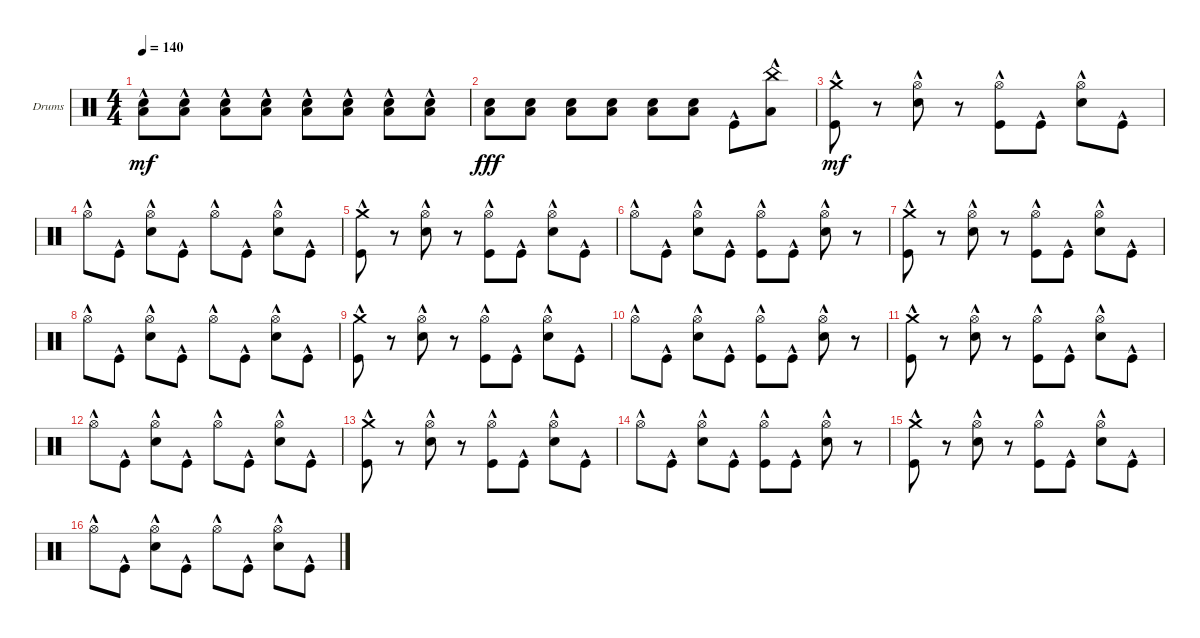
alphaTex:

\defaultSystemsLayout 4
\bracketExtendMode groupsimilarinstruments
\firstSystemTrackNameOrientation horizontal
\otherSystemsTrackNameOrientation horizontal
\track ("Drumkit" "Drums") {instrument percussion}
\staff {score}
\articulation defaults
\ts (4 4)
\tempo 140
\clef neutral
\ks c
("Snare (hit) 2"{hac} "Low Tom (hit)"{hac}).8{dy mf} ("Snare (hit) 2"{hac} "Low Tom (hit)"{hac}).8 ("Snare (hit) 2"{hac} "Low Tom (hit)"{hac}).8 ("Snare (hit) 2"{hac} "Low Tom (hit)"{hac}).8 ("Snare (hit) 2"{hac} "Low Tom (hit)"{hac}).8 ("Snare (hit) 2"{hac} "Low Tom (hit)"{hac}).8 ("Snare (hit) 2"{hac} "Low Tom (hit)"{hac}).8 ("Snare (hit) 2"{hac} "Low Tom (hit)"{hac}).8 |
("Snare (hit) 2" "Low Tom (hit)").8{dy fff} ("Snare (hit) 2" "Low Tom (hit)").8 ("Snare (hit) 2" "Low Tom (hit)").8 ("Snare (hit) 2" "Low Tom (hit)").8 ("Snare (hit) 2" "Low Tom (hit)").8 ("Snare (hit) 2" "Low Tom (hit)").8 "Kick (hit)"{hac}.8 ("Low Tom (hit)"{hac} "China (hit)"{hac}).8 |
("Kick (hit)"{hac} "Crash medium (hit)"{hac}).8{dy mf} r.8 ("Hi-Hat (open)"{hac} "Snare (hit) 2"{hac}).8 r.8 ("Hi-Hat (open)"{hac} "Kick (hit)"{hac}).8 "Kick (hit)"{hac}.8 ("Hi-Hat (open)"{hac} "Snare (hit) 2"{hac}).8 "Kick (hit)"{hac}.8 |
"Hi-Hat (open)"{hac}.8 "Kick (hit)"{hac}.8 ("Hi-Hat (open)"{hac} "Snare (hit) 2"{hac}).8 "Kick (hit)"{hac}.8 "Hi-Hat (open)"{hac}.8 "Kick (hit)"{hac}.8 ("Hi-Hat (open)"{hac} "Snare (hit) 2"{hac}).8 "Kick (hit)"{hac}.8 |
("Kick (hit)"{hac} "Crash medium (hit)"{hac}).8 r.8 ("Hi-Hat (open)"{hac} "Snare (hit) 2"{hac}).8 r.8 ("Hi-Hat (open)"{hac} "Kick (hit)"{hac}).8 "Kick (hit)"{hac}.8 ("Hi-Hat (open)"{hac} "Snare (hit) 2"{hac}).8 "Kick (hit)"{hac}.8 |
"Hi-Hat (open)"{hac}.8 "Kick (hit)"{hac}.8 ("Hi-Hat (open)"{hac} "Snare (hit) 2"{hac}).8 "Kick (hit)"{hac}.8 ("Hi-Hat (open)"{hac} "Kick (hit)"{hac}).8 "Kick (hit)"{hac}.8 ("Hi-Hat (open)"{hac} "Snare (hit) 2"{hac}).8 r.8 |
("Kick (hit)"{hac} "Crash medium (hit)"{hac}).8 r.8 ("Hi-Hat (open)"{hac} "Snare (hit) 2"{hac}).8 r.8 ("Hi-Hat (open)"{hac} "Kick (hit)"{hac}).8 "Kick (hit)"{hac}.8 ("Hi-Hat (open)"{hac} "Snare (hit) 2"{hac}).8 "Kick (hit)"{hac}.8 |
"Hi-Hat (open)"{hac}.8 "Kick (hit)"{hac}.8 ("Hi-Hat (open)"{hac} "Snare (hit) 2"{hac}).8 "Kick (hit)"{hac}.8 "Hi-Hat (open)"{hac}.8 "Kick (hit)"{hac}.8 ("Hi-Hat (open)"{hac} "Snare (hit) 2"{hac}).8 "Kick (hit)"{hac}.8 |
("Kick (hit)"{hac} "Crash medium (hit)"{hac}).8 r.8 ("Hi-Hat (open)"{hac} "Snare (hit) 2"{hac}).8 r.8 ("Hi-Hat (open)"{hac} "Kick (hit)"{hac}).8 "Kick (hit)"{hac}.8 ("Hi-Hat (open)"{hac} "Snare (hit) 2"{hac}).8 "Kick (hit)"{hac}.8 |
"Hi-Hat (open)"{hac}.8 "Kick (hit)"{hac}.8 ("Hi-Hat (open)"{hac} "Snare (hit) 2"{hac}).8 "Kick (hit)"{hac}.8 ("Hi-Hat (open)"{hac} "Kick (hit)"{hac}).8 "Kick (hit)"{hac}.8 ("Hi-Hat (open)"{hac} "Snare (hit) 2"{hac}).8 r.8 |
("Kick (hit)"{hac} "Crash medium (hit)"{hac}).8 r.8 ("Hi-Hat (open)"{hac} "Snare (hit) 2"{hac}).8 r.8 ("Hi-Hat (open)"{hac} "Kick (hit)"{hac}).8 "Kick (hit)"{hac}.8 ("Hi-Hat (open)"{hac} "Snare (hit) 2"{hac}).8 "Kick (hit)"{hac}.8 |
"Hi-Hat (open)"{hac}.8 "Kick (hit)"{hac}.8 ("Hi-Hat (open)"{hac} "Snare (hit) 2"{hac}).8 "Kick (hit)"{hac}.8 "Hi-Hat (open)"{hac}.8 "Kick (hit)"{hac}.8 ("Hi-Hat (open)"{hac} "Snare (hit) 2"{hac}).8 "Kick (hit)"{hac}.8 |
("Kick (hit)"{hac} "Crash medium (hit)"{hac}).8 r.8 ("Hi-Hat (open)"{hac} "Snare (hit) 2"{hac}).8 r.8 ("Hi-Hat (open)"{hac} "Kick (hit)"{hac}).8 "Kick (hit)"{hac}.8 ("Hi-Hat (open)"{hac} "Snare (hit) 2"{hac}).8 "Kick (hit)"{hac}.8 |
"Hi-Hat (open)"{hac}.8 "Kick (hit)"{hac}.8 ("Hi-Hat (open)"{hac} "Snare (hit) 2"{hac}).8 "Kick (hit)"{hac}.8 ("Hi-Hat (open)"{hac} "Kick (hit)"{hac}).8 "Kick (hit)"{hac}.8 ("Hi-Hat (open)"{hac} "Snare (hit) 2"{hac}).8 r.8 |
("Kick (hit)"{hac} "Crash medium (hit)"{hac}).8 r.8 ("Hi-Hat (open)"{hac} "Snare (hit) 2"{hac}).8 r.8 ("Hi-Hat (open)"{hac} "Kick (hit)"{hac}).8 "Kick (hit)"{hac}.8 ("Hi-Hat (open)"{hac} "Snare (hit) 2"{hac}).8 "Kick (hit)"{hac}.8 |
"Hi-Hat (open)"{hac}.8 "Kick (hit)"{hac}.8 ("Hi-Hat (open)"{hac} "Snare (hit) 2"{hac}).8 "Kick (hit)"{hac}.8 "Hi-Hat (open)"{hac}.8 "Kick (hit)"{hac}.8 ("Hi-Hat (open)"{hac} "Snare (hit) 2"{hac}).8 "Kick (hit)"{hac}.8
